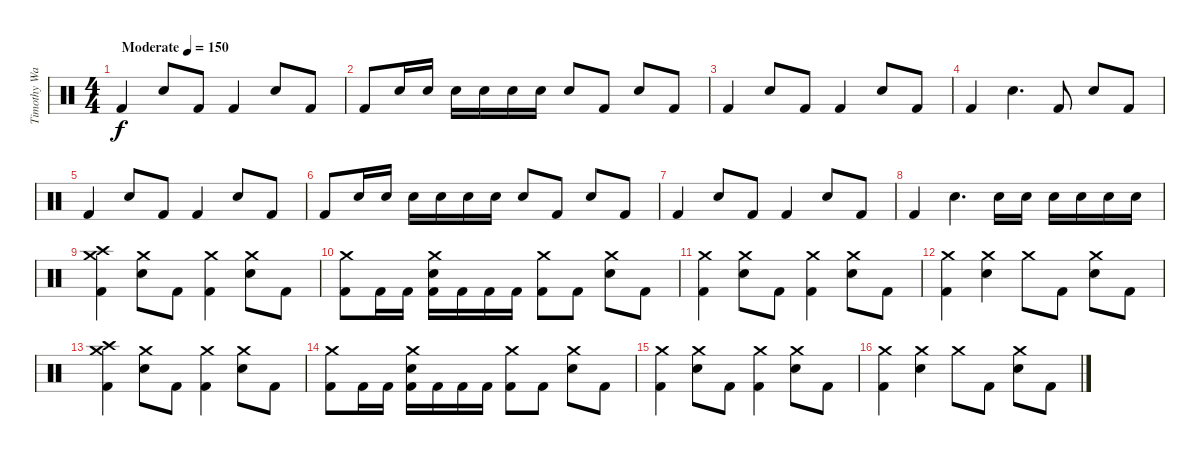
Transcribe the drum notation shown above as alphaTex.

\track ("Timothy Watts" "Timothy Wa") {instrument percussion}
\staff {score}
\articulation defaults
\ts (4 4)
\tempo (150 "Moderate")
\clef neutral
\ks c "Kick (hit) 2".4{dy f volume 9} "Electric Snare (hit)".8 "Kick (hit) 2".8 "Kick (hit) 2".4 "Electric Snare (hit)".8 "Kick (hit) 2".8
|
"Kick (hit) 2".8 "Electric Snare (hit)".16 "Electric Snare (hit)".16 "Electric Snare (hit)".16 "Electric Snare (hit)".16 "Electric Snare (hit)".16 "Electric Snare (hit)".16 "Electric Snare (hit)".8 "Kick (hit) 2".8 "Electric Snare (hit)".8 "Kick (hit) 2".8 |
"Kick (hit) 2".4 "Electric Snare (hit)".8 "Kick (hit) 2".8 "Kick (hit) 2".4 "Electric Snare (hit)".8 "Kick (hit) 2".8 |
"Kick (hit) 2".4 "Electric Snare (hit)".4{d} "Kick (hit) 2".8 "Electric Snare (hit)".8 "Kick (hit) 2".8 |
"Kick (hit) 2".4 "Electric Snare (hit)".8 "Kick (hit) 2".8 "Kick (hit) 2".4 "Electric Snare (hit)".8 "Kick (hit) 2".8 |
"Kick (hit) 2".8 "Electric Snare (hit)".16 "Electric Snare (hit)".16 "Electric Snare (hit)".16 "Electric Snare (hit)".16 "Electric Snare (hit)".16 "Electric Snare (hit)".16 "Electric Snare (hit)".8 "Kick (hit) 2".8 "Electric Snare (hit)".8 "Kick (hit) 2".8 |
"Kick (hit) 2".4 "Electric Snare (hit)".8 "Kick (hit) 2".8 "Kick (hit) 2".4 "Electric Snare (hit)".8 "Kick (hit) 2".8 |
"Kick (hit) 2".4 "Electric Snare (hit)".4{d} "Electric Snare (hit)".16{volume 13} "Electric Snare (hit)".16 "Electric Snare (hit)".16 "Electric Snare (hit)".16 "Electric Snare (hit)".16 "Electric Snare (hit)".16 |
("Crash medium (hit)" "Crash high (hit)" "Kick (hit) 2").4 ("Crash medium (hit)" "Electric Snare (hit)").8 "Kick (hit) 2".8 ("Crash medium (hit)" "Kick (hit) 2").4 ("Crash medium (hit)" "Electric Snare (hit)").8 "Kick (hit) 2".8 |
("Crash medium (hit)" "Kick (hit) 2").8 "Kick (hit) 2".16 "Kick (hit) 2".16 ("Crash medium (hit)" "Electric Snare (hit)" "Kick (hit) 2").16 "Kick (hit) 2".16 "Kick (hit) 2".16 "Kick (hit) 2".16 ("Crash medium (hit)" "Kick (hit) 2").8 "Kick (hit) 2".8 ("Crash medium (hit)" "Electric Snare (hit)").8 "Kick (hit) 2".8 |
("Crash medium (hit)" "Kick (hit) 2").4 ("Crash medium (hit)" "Electric Snare (hit)").8 "Kick (hit) 2".8 ("Crash medium (hit)" "Kick (hit) 2").4 ("Crash medium (hit)" "Electric Snare (hit)").8 "Kick (hit) 2".8 |
("Crash medium (hit)" "Kick (hit) 2").4 ("Crash medium (hit)" "Electric Snare (hit)").4 "Crash medium (hit)".8 "Kick (hit) 2".8 ("Crash medium (hit)" "Electric Snare (hit)").8 "Kick (hit) 2".8 |
("Crash medium (hit)" "Crash high (hit)" "Kick (hit) 2").4 ("Crash medium (hit)" "Electric Snare (hit)").8 "Kick (hit) 2".8 ("Crash medium (hit)" "Kick (hit) 2").4 ("Crash medium (hit)" "Electric Snare (hit)").8 "Kick (hit) 2".8 |
("Crash medium (hit)" "Kick (hit) 2").8 "Kick (hit) 2".16 "Kick (hit) 2".16 ("Crash medium (hit)" "Electric Snare (hit)" "Kick (hit) 2").16 "Kick (hit) 2".16 "Kick (hit) 2".16 "Kick (hit) 2".16 ("Crash medium (hit)" "Kick (hit) 2").8 "Kick (hit) 2".8 ("Crash medium (hit)" "Electric Snare (hit)").8 "Kick (hit) 2".8 |
("Crash medium (hit)" "Kick (hit) 2").4 ("Crash medium (hit)" "Electric Snare (hit)").8 "Kick (hit) 2".8 ("Crash medium (hit)" "Kick (hit) 2").4 ("Crash medium (hit)" "Electric Snare (hit)").8 "Kick (hit) 2".8 |
("Crash medium (hit)" "Kick (hit) 2").4 ("Crash medium (hit)" "Electric Snare (hit)").4 "Crash medium (hit)".8 "Kick (hit) 2".8 ("Crash medium (hit)" "Electric Snare (hit)").8 "Kick (hit) 2".8
